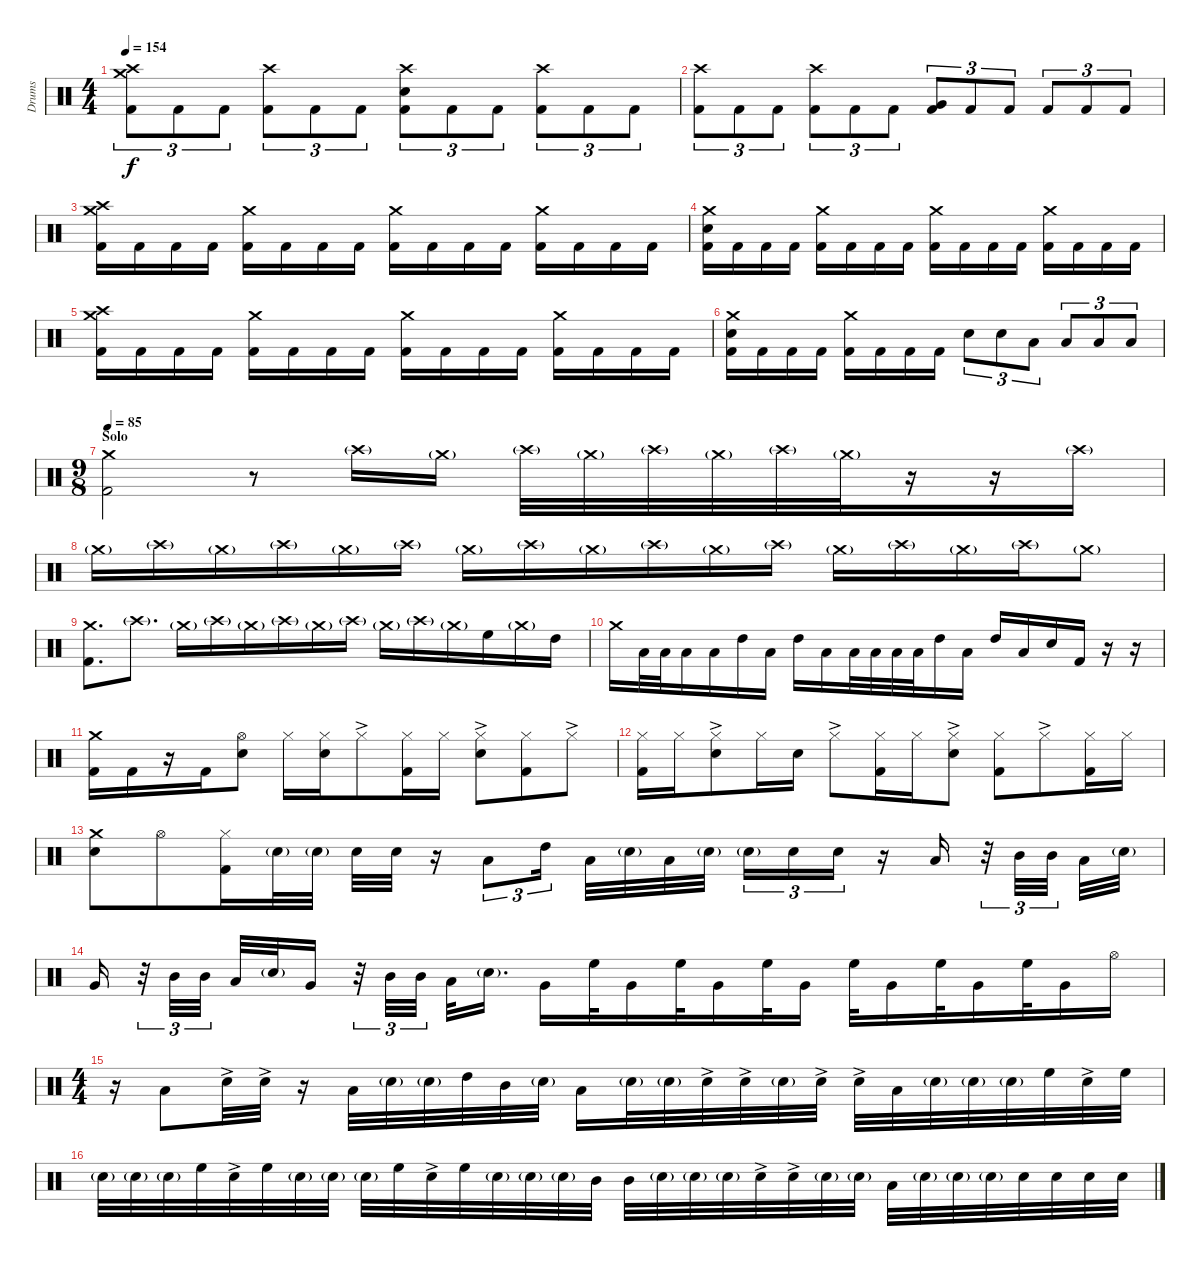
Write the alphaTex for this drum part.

\track ("Drums" "Drums") {instrument percussion}
\staff {score}
\articulation defaults
\ts (4 4)
\tempo 154
\clef neutral
\ks c
("Crash high (hit)" "Crash medium (hit)" "Kick (hit) 2").8{tu (3 2) dy f} "Kick (hit) 2".8{tu (3 2)} "Kick (hit) 2".8{tu (3 2)} ("Crash high (hit)" "Kick (hit) 2").8{tu (3 2)} "Kick (hit) 2".8{tu (3 2)} "Kick (hit) 2".8{tu (3 2)} ("Crash high (hit)" "Snare (hit) 2" "Kick (hit) 2").8{tu (3 2)} "Kick (hit) 2".8{tu (3 2)} "Kick (hit) 2".8{tu (3 2)} ("Crash high (hit)" "Kick (hit) 2").8{tu (3 2)} "Kick (hit) 2".8{tu (3 2)} "Kick (hit) 2".8{tu (3 2)} |
("Crash high (hit)" "Kick (hit) 2").8{tu (3 2)} "Kick (hit) 2".8{tu (3 2)} "Kick (hit) 2".8{tu (3 2)} ("Crash high (hit)" "Kick (hit) 2").8{tu (3 2)} "Kick (hit) 2".8{tu (3 2)} "Kick (hit) 2".8{tu (3 2)} ("Very Low Tom (hit)" "Kick (hit) 2").8{tu (3 2)} "Kick (hit) 2".8{tu (3 2)} "Kick (hit) 2".8{tu (3 2)} "Kick (hit) 2".8{tu (3 2)} "Kick (hit) 2".8{tu (3 2)} "Kick (hit) 2".8{tu (3 2)} |
("Crash medium (hit)" "Crash high (hit)" "Kick (hit) 2").16 "Kick (hit) 2".16 "Kick (hit) 2".16 "Kick (hit) 2".16 ("Crash medium (hit)" "Kick (hit) 2").16 "Kick (hit) 2".16 "Kick (hit) 2".16 "Kick (hit) 2".16 ("Crash medium (hit)" "Kick (hit) 2").16 "Kick (hit) 2".16 "Kick (hit) 2".16 "Kick (hit) 2".16 ("Crash medium (hit)" "Kick (hit) 2").16 "Kick (hit) 2".16 "Kick (hit) 2".16 "Kick (hit) 2".16 |
("Crash medium (hit)" "Snare (hit) 2" "Kick (hit) 2").16 "Kick (hit) 2".16 "Kick (hit) 2".16 "Kick (hit) 2".16 ("Crash medium (hit)" "Kick (hit) 2").16 "Kick (hit) 2".16 "Kick (hit) 2".16 "Kick (hit) 2".16 ("Crash medium (hit)" "Kick (hit) 2").16 "Kick (hit) 2".16 "Kick (hit) 2".16 "Kick (hit) 2".16 ("Crash medium (hit)" "Kick (hit) 2").16 "Kick (hit) 2".16 "Kick (hit) 2".16 "Kick (hit) 2".16 |
("Crash medium (hit)" "Crash high (hit)" "Kick (hit) 2").16 "Kick (hit) 2".16 "Kick (hit) 2".16 "Kick (hit) 2".16 ("Crash medium (hit)" "Kick (hit) 2").16 "Kick (hit) 2".16 "Kick (hit) 2".16 "Kick (hit) 2".16 ("Crash medium (hit)" "Kick (hit) 2").16 "Kick (hit) 2".16 "Kick (hit) 2".16 "Kick (hit) 2".16 ("Crash medium (hit)" "Kick (hit) 2").16 "Kick (hit) 2".16 "Kick (hit) 2".16 "Kick (hit) 2".16 |
("Crash medium (hit)" "Snare (hit) 2" "Kick (hit) 2").16 "Kick (hit) 2".16 "Kick (hit) 2".16 "Kick (hit) 2".16 ("Crash medium (hit)" "Kick (hit) 2").16 "Kick (hit) 2".16 "Kick (hit) 2".16 "Kick (hit) 2".16 "Snare (hit) 2".8{tu (3 2)} "Snare (hit) 2".8{tu (3 2)} "Low Tom (hit)".8{tu (3 2)} "Low Tom (hit)".8{tu (3 2)} "Low Tom (hit)".8{tu (3 2)} "Low Tom (hit)".8{tu (3 2)} |
\ts (9 8)
\section ("" "Solo")
\tempo 85
("Crash medium (hit)" "Kick (hit) 2").2 r.8 "Crash high (hit)"{g}.16 "Crash medium (hit)"{g}.16 "Crash high (hit)"{g}.32 "Crash medium (hit)"{g}.32 "Crash high (hit)"{g}.32 "Crash medium (hit)"{g}.32 "Crash high (hit)"{g}.32 "Crash medium (hit)"{g}.32 r.16 r.16 "Crash high (hit)"{g}.16 |
"Crash medium (hit)"{g}.16 "Crash high (hit)"{g}.16 "Crash medium (hit)"{g}.16 "Crash high (hit)"{g}.16 "Crash medium (hit)"{g}.16 "Crash high (hit)"{g}.16 "Crash medium (hit)"{g}.16 "Crash high (hit)"{g}.16 "Crash medium (hit)"{g}.16 "Crash high (hit)"{g}.16 "Crash medium (hit)"{g}.16 "Crash high (hit)"{g}.16 "Crash medium (hit)"{g}.16 "Crash high (hit)"{g}.16 "Crash medium (hit)"{g}.16 "Crash high (hit)"{g}.16 "Crash medium (hit)"{g}.8 |
("Crash medium (hit)" "Kick (hit) 2").8{d} "Crash high (hit)"{g}.8{d} "Crash medium (hit)"{g}.16 "Crash high (hit)"{g}.16 "Crash medium (hit)"{g}.16 "Crash high (hit)"{g}.16 "Crash medium (hit)"{g}.16 "Crash high (hit)"{g}.16 "Crash medium (hit)"{g}.16 "Crash high (hit)"{g}.16 "Crash medium (hit)"{g}.16 "High Floor Tom (hit)".16 "Crash medium (hit)"{g}.16 "High Tom (hit)".16 |
"Crash medium (hit)".16 "Low Tom (hit)".32 "Low Tom (hit)".32 "Low Tom (hit)".16 "Low Tom (hit)".16 "High Tom (hit)".16 "Low Tom (hit)".16 "High Tom (hit)".16 "Low Tom (hit)".16 "Low Tom (hit)".32 "Low Tom (hit)".32 "Low Tom (hit)".32 "Low Tom (hit)".32 "High Tom (hit)".16 "Low Tom (hit)".16 "High Tom (hit)".16 "Low Tom (hit)".16 "Snare (hit) 2".16 "Kick (hit) 2".16 r.16 r.16 |
("Crash medium (hit)" "Kick (hit) 2").16 "Kick (hit) 2".16 r.16 "Kick (hit) 2".16 ("Hi-Hat (open)" "Snare (hit) 2").8 "Hi-Hat (closed)".16 ("Hi-Hat (closed)" "Snare (hit) 2").16 "Hi-Hat (closed)"{ac}.8 ("Hi-Hat (closed)" "Kick (hit) 2").16 "Hi-Hat (closed)".16 ("Hi-Hat (closed)"{ac} "Snare (hit) 2").8 ("Hi-Hat (closed)" "Kick (hit) 2").8 "Hi-Hat (closed)"{ac}.8 |
("Hi-Hat (closed)" "Kick (hit) 2").16 "Hi-Hat (closed)".16 ("Hi-Hat (closed)"{ac} "Snare (hit) 2").8 "Hi-Hat (closed)".16 "Snare (hit) 2".16 "Hi-Hat (closed)"{ac}.8 ("Hi-Hat (closed)" "Kick (hit) 2").16 "Hi-Hat (closed)".16 ("Hi-Hat (closed)"{ac} "Snare (hit) 2").8 ("Hi-Hat (closed)" "Kick (hit) 2").8 "Hi-Hat (closed)"{ac}.8 ("Hi-Hat (closed)" "Kick (hit) 2").16 "Hi-Hat (closed)".16 |
("Crash medium (hit)" "Snare (hit) 2").8 "Hi-Hat (open)".8 ("Hi-Hat (closed)" "Kick (hit) 2").16 "Snare (hit) 2"{g}.32 "Snare (hit) 2"{g}.32 "Snare (hit) 2".32 "Snare (hit) 2".32 r.16 "Low Tom (hit)".8{tu (3 2)} "High Tom (hit)".16{tu (3 2)} "Low Tom (hit)".32 "Snare (hit) 2"{g}.32 "Low Tom (hit)".32 "Snare (hit) 2"{g}.32 "Snare (hit) 2"{g}.16{tu (3 2)} "Snare (hit) 2".16{tu (3 2)} "Snare (hit) 2".16{tu (3 2)} r.16 "Low Tom (hit)".16 r.32{tu (3 2)} "Mid Tom (hit)".32{tu (3 2)} "Mid Tom (hit)".32{tu (3 2)} "Low Tom (hit)".32 "Snare (hit) 2"{g}.32 |
"Very Low Tom (hit)".16 r.32{tu (3 2)} "Mid Tom (hit)".32{tu (3 2)} "Mid Tom (hit)".32{tu (3 2)} "Low Tom (hit)".32 "Snare (hit) 2"{g}.32 "Very Low Tom (hit)".16 r.32{tu (3 2)} "Mid Tom (hit)".32{tu (3 2)} "Mid Tom (hit)".32{tu (3 2)} "Low Tom (hit)".32 "Snare (hit) 2"{g}.16{d} "Very Low Tom (hit)".16 "High Floor Tom (hit)".32 "Very Low Tom (hit)".16 "High Floor Tom (hit)".32 "Very Low Tom (hit)".16 "High Floor Tom (hit)".32 "Very Low Tom (hit)".16 "High Floor Tom (hit)".32 "Very Low Tom (hit)".16 "High Floor Tom (hit)".32 "Very Low Tom (hit)".16 "High Floor Tom (hit)".32 "Very Low Tom (hit)".16 "Hi-Hat (open)".16 |
\ts (4 4)
r.16 "Low Tom (hit)".8 "Snare (hit) 2"{ac}.32 "Snare (hit) 2"{ac}.32 r.16 "Low Tom (hit)".32 "Snare (hit) 2"{g}.32 "Snare (hit) 2"{g}.32 "High Tom (hit)".32 "Mid Tom (hit)".32 "Snare (hit) 2"{g}.32 "Low Tom (hit)".16 "Snare (hit) 2"{g}.32 "Snare (hit) 2"{g}.32 "Snare (hit) 2"{ac}.32 "Snare (hit) 2"{ac}.32 "Snare (hit) 2"{g}.32 "Snare (hit) 2"{ac}.32 "Snare (hit) 2"{ac}.32 "Low Tom (hit)".32 "Snare (hit) 2"{g}.32 "Snare (hit) 2"{g}.32 "Snare (hit) 2"{g}.32 "High Floor Tom (hit)".32 "Snare (hit) 2"{ac}.32 "High Floor Tom (hit)".32 |
"Snare (hit) 2"{g}.32 "Snare (hit) 2"{g}.32 "Snare (hit) 2"{g}.32 "High Floor Tom (hit)".32 "Snare (hit) 2"{ac}.32 "High Floor Tom (hit)".32 "Snare (hit) 2"{g}.32 "Snare (hit) 2"{g}.32 "Snare (hit) 2"{g}.32 "High Floor Tom (hit)".32 "Snare (hit) 2"{ac}.32 "High Floor Tom (hit)".32 "Snare (hit) 2"{g}.32 "Snare (hit) 2"{g}.32 "Snare (hit) 2"{g}.32 "Mid Tom (hit)".32 "Mid Tom (hit)".32 "Snare (hit) 2"{g}.32 "Snare (hit) 2"{g}.32 "Snare (hit) 2"{g}.32 "Snare (hit) 2"{ac}.32 "Snare (hit) 2"{ac}.32 "Snare (hit) 2"{g}.32 "Snare (hit) 2"{g}.32 "Low Tom (hit)".32 "Snare (hit) 2"{g}.32 "Snare (hit) 2"{g}.32 "Snare (hit) 2"{g}.32 "Snare (hit) 2".32 "Snare (hit) 2".32 "Snare (hit) 2".32 "Snare (hit) 2".32
